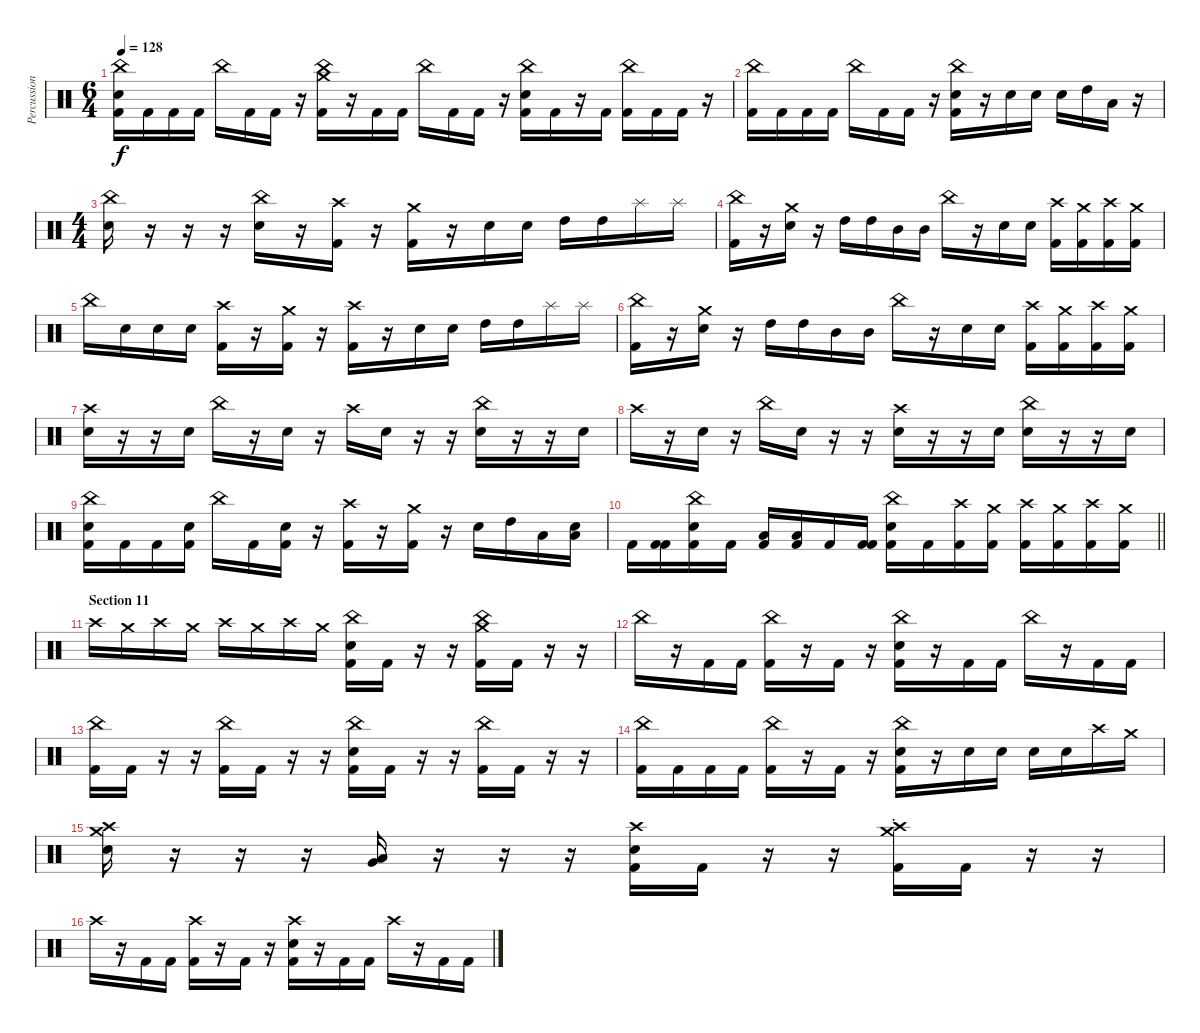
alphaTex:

\track ("Percussion" "Percussion") {instrument percussion}
\staff {score}
\articulation defaults
\ts (6 4)
\tempo 128
\clef neutral
\ks c
("China (hit)" "Snare (hit) 2" "Kick (hit) 2").16{dy f} "Kick (hit) 2".16 "Kick (hit) 2".16 "Kick (hit) 2".16 "China (hit)".16 "Kick (hit) 2".16 "Kick (hit) 2".16 r.16 ("China (hit)" "Crash medium (hit)" "Kick (hit) 2").16 r.16 "Kick (hit) 2".16 "Kick (hit) 2".16 "China (hit)".16 "Kick (hit) 2".16 "Kick (hit) 2".16 r.16 ("China (hit)" "Snare (hit) 2" "Kick (hit) 2").16 "Kick (hit) 2".16 r.16 "Kick (hit) 2".16 ("China (hit)" "Kick (hit) 2").16 "Kick (hit) 2".16 "Kick (hit) 2".16 r.16 |
("China (hit)" "Kick (hit) 2").16 "Kick (hit) 2".16 "Kick (hit) 2".16 "Kick (hit) 2".16 "China (hit)".16 "Kick (hit) 2".16 "Kick (hit) 2".16 r.16 ("China (hit)" "Snare (hit) 2" "Kick (hit) 2").16 r.16 "Snare (hit) 2".16 "Snare (hit) 2".16 "Snare (hit) 2".16 "High Tom (hit)".16 "Low Tom (hit)".16 r.16 |
\ts (4 4)
("China (hit)" "Snare (hit) 2").16 r.16 r.16 r.16 ("China (hit)" "Snare (hit) 2").16 r.16 ("Crash high (hit)" "Kick (hit) 2").16 r.16 ("Crash medium (hit)" "Kick (hit) 2").16 r.16 "Snare (hit) 2".16 "Snare (hit) 2".16 "High Tom (hit)".16 "High Tom (hit)".16 "Splash (hit)".16 "Splash (hit)".16 |
("China (hit)" "Kick (hit) 2").16 r.16 ("Crash medium (hit)" "Snare (hit) 2").16 r.16 "High Tom (hit)".16 "High Tom (hit)".16 "Mid Tom (hit)".16 "Mid Tom (hit)".16 "China (hit)".16 r.16 "Snare (hit) 2".16 "Snare (hit) 2".16 ("Crash high (hit)" "Kick (hit) 2").16 ("Crash medium (hit)" "Kick (hit) 2").16 ("Crash high (hit)" "Kick (hit) 2").16 ("Crash medium (hit)" "Kick (hit) 2").16 |
"China (hit)".16 "Snare (hit) 2".16 "Snare (hit) 2".16 "Snare (hit) 2".16 ("Crash high (hit)" "Kick (hit) 2").16 r.16 ("Crash medium (hit)" "Kick (hit) 2").16 r.16 ("Crash high (hit)" "Kick (hit) 2").16 r.16 "Snare (hit) 2".16 "Snare (hit) 2".16 "High Tom (hit)".16 "High Tom (hit)".16 "Splash (hit)".16 "Splash (hit)".16 |
("China (hit)" "Kick (hit) 2").16 r.16 ("Crash medium (hit)" "Snare (hit) 2").16 r.16 "High Tom (hit)".16 "High Tom (hit)".16 "Mid Tom (hit)".16 "Mid Tom (hit)".16 "China (hit)".16 r.16 "Snare (hit) 2".16 "Snare (hit) 2".16 ("Crash high (hit)" "Kick (hit) 2").16 ("Crash medium (hit)" "Kick (hit) 2").16 ("Crash high (hit)" "Kick (hit) 2").16 ("Crash medium (hit)" "Kick (hit) 2").16 |
("Crash high (hit)" "Snare (hit) 2").16 r.16 r.16 "Snare (hit) 2".16 "China (hit)".16 r.16 "Snare (hit) 2".16 r.16 "Crash high (hit)".16 "Snare (hit) 2".16 r.16 r.16 ("China (hit)" "Snare (hit) 2").16 r.16 r.16 "Snare (hit) 2".16 |
"Crash high (hit)".16 r.16 "Snare (hit) 2".16 r.16 "China (hit)".16 "Snare (hit) 2".16 r.16 r.16 ("Crash high (hit)" "Snare (hit) 2").16 r.16 r.16 "Snare (hit) 2".16 ("China (hit)" "Snare (hit) 2").16 r.16 r.16 "Snare (hit) 2".16 |
("China (hit)" "Snare (hit) 2" "Kick (hit) 2").16 "Kick (hit) 2".16 "Kick (hit) 2".16 ("Snare (hit) 2" "Kick (hit) 2").16 "China (hit)".16 "Kick (hit) 2".16 ("Snare (hit) 2" "Kick (hit) 2").16 r.16 ("Crash high (hit)" "Kick (hit) 2").16 r.16 ("Crash medium (hit)" "Kick (hit) 2").16 r.16 "Snare (hit) 2".16 "High Tom (hit)".16 "Low Tom (hit)".16 ("Low Tom (hit)" "Snare (hit) 2").16 |
\barLineRight lightlight "Kick (hit) 2".16
("Kick (hit) 2" "Kick (hit) 2").16 ("China (hit)" "Snare (hit) 2" "Kick (hit) 2").16 "Kick (hit) 2".16 ("Low Tom (hit)" "Kick (hit) 2").16 ("Low Tom (hit)" "Kick (hit) 2").16 "Kick (hit) 2".16 ("Kick (hit) 2" "Kick (hit) 2").16 ("China (hit)" "Snare (hit) 2" "Kick (hit) 2").16 "Kick (hit) 2".16 ("Crash high (hit)" "Kick (hit) 2").16 ("Crash medium (hit)" "Kick (hit) 2").16 ("Crash high (hit)" "Kick (hit) 2").16 ("Crash medium (hit)" "Kick (hit) 2").16 ("Crash high (hit)" "Kick (hit) 2").16 ("Crash medium (hit)" "Kick (hit) 2").16 |
\section ("" "Section 11")
"Crash high (hit)".16 "Crash medium (hit)".16 "Crash high (hit)".16 "Crash medium (hit)".16 "Crash high (hit)".16 "Crash medium (hit)".16 "Crash high (hit)".16 "Crash medium (hit)".16 ("China (hit)" "Snare (hit) 2" "Kick (hit) 2").16 "Kick (hit) 2".16 r.16 r.16 ("China (hit)" "Crash medium (hit)" "Kick (hit) 2").16 "Kick (hit) 2".16 r.16 r.16 |
"China (hit)".16 r.16 "Kick (hit) 2".16 "Kick (hit) 2".16 ("China (hit)" "Kick (hit) 2").16 r.16 "Kick (hit) 2".16 r.16 ("China (hit)" "Snare (hit) 2" "Kick (hit) 2").16 r.16 "Kick (hit) 2".16 "Kick (hit) 2".16 "China (hit)".16 r.16 "Kick (hit) 2".16 "Kick (hit) 2".16 |
("China (hit)" "Kick (hit) 2").16 "Kick (hit) 2".16 r.16 r.16 ("China (hit)" "Kick (hit) 2").16 "Kick (hit) 2".16 r.16 r.16 ("China (hit)" "Snare (hit) 2" "Kick (hit) 2").16 "Kick (hit) 2".16 r.16 r.16 ("China (hit)" "Kick (hit) 2").16 "Kick (hit) 2".16 r.16 r.16 |
("China (hit)" "Kick (hit) 2").16 "Kick (hit) 2".16 "Kick (hit) 2".16 "Kick (hit) 2".16 ("China (hit)" "Kick (hit) 2").16 r.16 "Kick (hit) 2".16 r.16 ("China (hit)" "Snare (hit) 2" "Kick (hit) 2").16 r.16 "Snare (hit) 2".16 "Snare (hit) 2".16 "Snare (hit) 2".16 "Snare (hit) 2".16 "Crash high (hit)".16 "Crash medium (hit)".16 |
("Crash medium (hit)" "Crash high (hit)" "Snare (hit) 2").16 r.16 r.16 r.16 ("Very Low Tom (hit)" "Low Tom (hit)").16 r.16 r.16 r.16 ("Crash high (hit)" "Snare (hit) 2" "Kick (hit) 2").16 "Kick (hit) 2".16 r.16 r.16 ("Crash high (hit)"{st} "Crash medium (hit)" "Kick (hit) 2").16 "Kick (hit) 2".16 r.16 r.16 |
"Crash high (hit)".16 r.16 "Kick (hit) 2".16 "Kick (hit) 2".16 ("Crash high (hit)" "Kick (hit) 2").16 r.16 "Kick (hit) 2".16 r.16 ("Crash high (hit)" "Snare (hit) 2" "Kick (hit) 2").16 r.16 "Kick (hit) 2".16 "Kick (hit) 2".16 "Crash high (hit)".16 r.16 "Kick (hit) 2".16 "Kick (hit) 2".16
